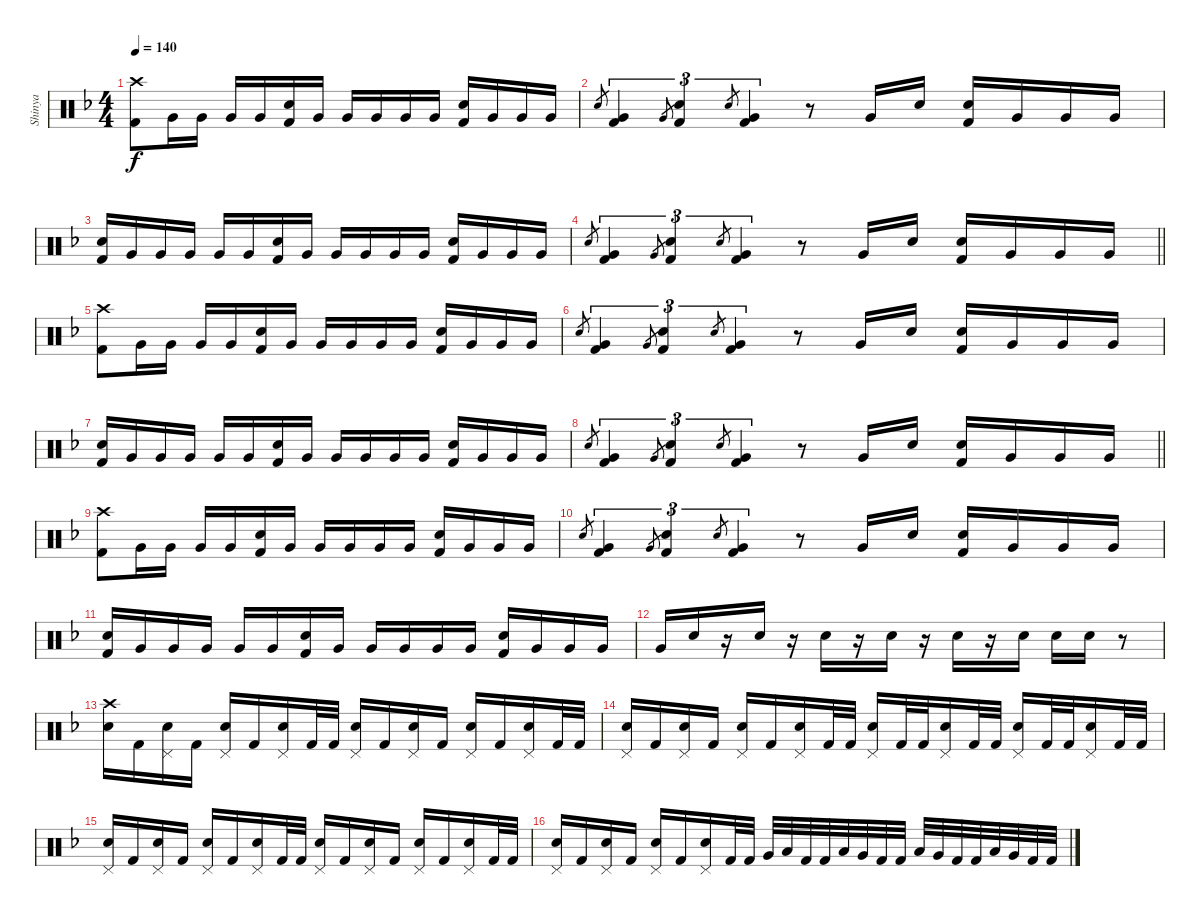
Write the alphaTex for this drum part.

\track ("Shinya" "Shinya") {instrument percussion}
\staff {score}
\articulation defaults
\ts (4 4)
\tempo 140
\clef neutral
\ks dminor
("Crash high (hit)" "Kick (hit) 2").8{dy f} "Very Low Tom (hit)".16 "Very Low Tom (hit)".16 "Very Low Tom (hit)".16 "Very Low Tom (hit)".16 ("Electric Snare (hit)" "Kick (hit) 2").16 "Very Low Tom (hit)".16 "Very Low Tom (hit)".16 "Very Low Tom (hit)".16 "Very Low Tom (hit)".16 "Very Low Tom (hit)".16 ("Electric Snare (hit)" "Kick (hit) 2").16 "Very Low Tom (hit)".16 "Very Low Tom (hit)".16 "Very Low Tom (hit)".16 |
"Electric Snare (hit)".8{gr} ("Very Low Tom (hit)" "Kick (hit) 2").4{tu (3 2)} "Very Low Tom (hit)".8{gr} ("Electric Snare (hit)" "Kick (hit) 2").4{tu (3 2)} "Electric Snare (hit)".8{gr} ("Very Low Tom (hit)" "Kick (hit) 2").4{tu (3 2)} r.8 "Very Low Tom (hit)".16 "Electric Snare (hit)".16 ("Electric Snare (hit)" "Kick (hit) 2").16 "Very Low Tom (hit)".16 "Very Low Tom (hit)".16 "Very Low Tom (hit)".16 |
("Electric Snare (hit)" "Kick (hit) 2").16 "Very Low Tom (hit)".16 "Very Low Tom (hit)".16 "Very Low Tom (hit)".16 "Very Low Tom (hit)".16 "Very Low Tom (hit)".16 ("Electric Snare (hit)" "Kick (hit) 2").16 "Very Low Tom (hit)".16 "Very Low Tom (hit)".16 "Very Low Tom (hit)".16 "Very Low Tom (hit)".16 "Very Low Tom (hit)".16 ("Electric Snare (hit)" "Kick (hit) 2").16 "Very Low Tom (hit)".16 "Very Low Tom (hit)".16 "Very Low Tom (hit)".16 |
\barLineRight lightlight "Electric Snare (hit)".8{gr}
("Very Low Tom (hit)" "Kick (hit) 2").4{tu (3 2)} "Very Low Tom (hit)".8{gr} ("Electric Snare (hit)" "Kick (hit) 2").4{tu (3 2)} "Electric Snare (hit)".8{gr} ("Very Low Tom (hit)" "Kick (hit) 2").4{tu (3 2)} r.8 "Very Low Tom (hit)".16 "Electric Snare (hit)".16 ("Electric Snare (hit)" "Kick (hit) 2").16 "Very Low Tom (hit)".16 "Very Low Tom (hit)".16 "Very Low Tom (hit)".16 |
("Crash high (hit)" "Kick (hit) 2").8 "Very Low Tom (hit)".16 "Very Low Tom (hit)".16 "Very Low Tom (hit)".16 "Very Low Tom (hit)".16 ("Electric Snare (hit)" "Kick (hit) 2").16 "Very Low Tom (hit)".16 "Very Low Tom (hit)".16 "Very Low Tom (hit)".16 "Very Low Tom (hit)".16 "Very Low Tom (hit)".16 ("Electric Snare (hit)" "Kick (hit) 2").16 "Very Low Tom (hit)".16 "Very Low Tom (hit)".16 "Very Low Tom (hit)".16 |
"Electric Snare (hit)".8{gr} ("Very Low Tom (hit)" "Kick (hit) 2").4{tu (3 2)} "Very Low Tom (hit)".8{gr} ("Electric Snare (hit)" "Kick (hit) 2").4{tu (3 2)} "Electric Snare (hit)".8{gr} ("Very Low Tom (hit)" "Kick (hit) 2").4{tu (3 2)} r.8 "Very Low Tom (hit)".16 "Electric Snare (hit)".16 ("Electric Snare (hit)" "Kick (hit) 2").16 "Very Low Tom (hit)".16 "Very Low Tom (hit)".16 "Very Low Tom (hit)".16 |
("Electric Snare (hit)" "Kick (hit) 2").16 "Very Low Tom (hit)".16 "Very Low Tom (hit)".16 "Very Low Tom (hit)".16 "Very Low Tom (hit)".16 "Very Low Tom (hit)".16 ("Electric Snare (hit)" "Kick (hit) 2").16 "Very Low Tom (hit)".16 "Very Low Tom (hit)".16 "Very Low Tom (hit)".16 "Very Low Tom (hit)".16 "Very Low Tom (hit)".16 ("Electric Snare (hit)" "Kick (hit) 2").16 "Very Low Tom (hit)".16 "Very Low Tom (hit)".16 "Very Low Tom (hit)".16 |
\barLineRight lightlight "Electric Snare (hit)".8{gr}
("Very Low Tom (hit)" "Kick (hit) 2").4{tu (3 2)} "Very Low Tom (hit)".8{gr} ("Electric Snare (hit)" "Kick (hit) 2").4{tu (3 2)} "Electric Snare (hit)".8{gr} ("Very Low Tom (hit)" "Kick (hit) 2").4{tu (3 2)} r.8 "Very Low Tom (hit)".16 "Electric Snare (hit)".16 ("Electric Snare (hit)" "Kick (hit) 2").16 "Very Low Tom (hit)".16 "Very Low Tom (hit)".16 "Very Low Tom (hit)".16 |
("Crash high (hit)" "Kick (hit) 2").8 "Very Low Tom (hit)".16 "Very Low Tom (hit)".16 "Very Low Tom (hit)".16 "Very Low Tom (hit)".16 ("Electric Snare (hit)" "Kick (hit) 2").16 "Very Low Tom (hit)".16 "Very Low Tom (hit)".16 "Very Low Tom (hit)".16 "Very Low Tom (hit)".16 "Very Low Tom (hit)".16 ("Electric Snare (hit)" "Kick (hit) 2").16 "Very Low Tom (hit)".16 "Very Low Tom (hit)".16 "Very Low Tom (hit)".16 |
"Electric Snare (hit)".8{gr} ("Very Low Tom (hit)" "Kick (hit) 2").4{tu (3 2)} "Very Low Tom (hit)".8{gr} ("Electric Snare (hit)" "Kick (hit) 2").4{tu (3 2)} "Electric Snare (hit)".8{gr} ("Very Low Tom (hit)" "Kick (hit) 2").4{tu (3 2)} r.8 "Very Low Tom (hit)".16 "Electric Snare (hit)".16 ("Electric Snare (hit)" "Kick (hit) 2").16 "Very Low Tom (hit)".16 "Very Low Tom (hit)".16 "Very Low Tom (hit)".16 |
("Electric Snare (hit)" "Kick (hit) 2").16 "Very Low Tom (hit)".16 "Very Low Tom (hit)".16 "Very Low Tom (hit)".16 "Very Low Tom (hit)".16 "Very Low Tom (hit)".16 ("Electric Snare (hit)" "Kick (hit) 2").16 "Very Low Tom (hit)".16 "Very Low Tom (hit)".16 "Very Low Tom (hit)".16 "Very Low Tom (hit)".16 "Very Low Tom (hit)".16 ("Electric Snare (hit)" "Kick (hit) 2").16 "Very Low Tom (hit)".16 "Very Low Tom (hit)".16 "Very Low Tom (hit)".16 |
"Very Low Tom (hit)".16 "Electric Snare (hit)".16 r.16 "Electric Snare (hit)".16 r.16 "Electric Snare (hit)".16 r.16 "Electric Snare (hit)".16 r.16 "Electric Snare (hit)".16 r.16 "Electric Snare (hit)".16 "Electric Snare (hit)".16 "Electric Snare (hit)".16 r.8 |
("Crash high (hit)" "Electric Snare (hit)").16 "Kick (hit) 2".16 ("Pedal Hi-Hat (hit)" "Electric Snare (hit)").16 "Kick (hit) 2".16 ("Pedal Hi-Hat (hit)" "Electric Snare (hit)").16 "Kick (hit) 2".16 ("Pedal Hi-Hat (hit)" "Electric Snare (hit)").16 "Kick (hit) 2".32 "Kick (hit) 2".32 ("Pedal Hi-Hat (hit)" "Electric Snare (hit)").16 "Kick (hit) 2".16 ("Pedal Hi-Hat (hit)" "Electric Snare (hit)").16 "Kick (hit) 2".16 ("Pedal Hi-Hat (hit)" "Electric Snare (hit)").16 "Kick (hit) 2".16 ("Pedal Hi-Hat (hit)" "Electric Snare (hit)").16 "Kick (hit) 2".32 "Kick (hit) 2".32 |
("Pedal Hi-Hat (hit)" "Electric Snare (hit)").16 "Kick (hit) 2".16 ("Pedal Hi-Hat (hit)" "Electric Snare (hit)").16 "Kick (hit) 2".16 ("Pedal Hi-Hat (hit)" "Electric Snare (hit)").16 "Kick (hit) 2".16 ("Pedal Hi-Hat (hit)" "Electric Snare (hit)").16 "Kick (hit) 2".32 "Kick (hit) 2".32 ("Pedal Hi-Hat (hit)" "Electric Snare (hit)").16 "Kick (hit) 2".32 "Kick (hit) 2".32 ("Pedal Hi-Hat (hit)" "Electric Snare (hit)").16 "Kick (hit) 2".32 "Kick (hit) 2".32 ("Pedal Hi-Hat (hit)" "Electric Snare (hit)").16 "Kick (hit) 2".32 "Kick (hit) 2".32 ("Pedal Hi-Hat (hit)" "Electric Snare (hit)").16 "Kick (hit) 2".32 "Kick (hit) 2".32 |
("Pedal Hi-Hat (hit)" "Electric Snare (hit)").16 "Kick (hit) 2".16 ("Pedal Hi-Hat (hit)" "Electric Snare (hit)").16 "Kick (hit) 2".16 ("Pedal Hi-Hat (hit)" "Electric Snare (hit)").16 "Kick (hit) 2".16 ("Pedal Hi-Hat (hit)" "Electric Snare (hit)").16 "Kick (hit) 2".32 "Kick (hit) 2".32 ("Pedal Hi-Hat (hit)" "Electric Snare (hit)").16 "Kick (hit) 2".16 ("Pedal Hi-Hat (hit)" "Electric Snare (hit)").16 "Kick (hit) 2".16 ("Pedal Hi-Hat (hit)" "Electric Snare (hit)").16 "Kick (hit) 2".16 ("Pedal Hi-Hat (hit)" "Electric Snare (hit)").16 "Kick (hit) 2".32 "Kick (hit) 2".32 |
("Pedal Hi-Hat (hit)" "Electric Snare (hit)").16 "Kick (hit) 2".16 ("Pedal Hi-Hat (hit)" "Electric Snare (hit)").16 "Kick (hit) 2".16 ("Pedal Hi-Hat (hit)" "Electric Snare (hit)").16 "Kick (hit) 2".16 ("Pedal Hi-Hat (hit)" "Electric Snare (hit)").16 "Kick (hit) 2".32 "Kick (hit) 2".32 "Very Low Tom (hit)".32 "Low Tom (hit)".32 "Kick (hit) 2".32 "Kick (hit) 2".32 "Low Floor Tom (hit)".32 "Very Low Tom (hit)".32 "Kick (hit) 2".32 "Kick (hit) 2".32 "Low Floor Tom (hit)".32 "Very Low Tom (hit)".32 "Kick (hit) 2".32 "Kick (hit) 2".32 "Low Floor Tom (hit)".32 "Very Low Tom (hit)".32 "Kick (hit) 2".32 "Kick (hit) 2".32
